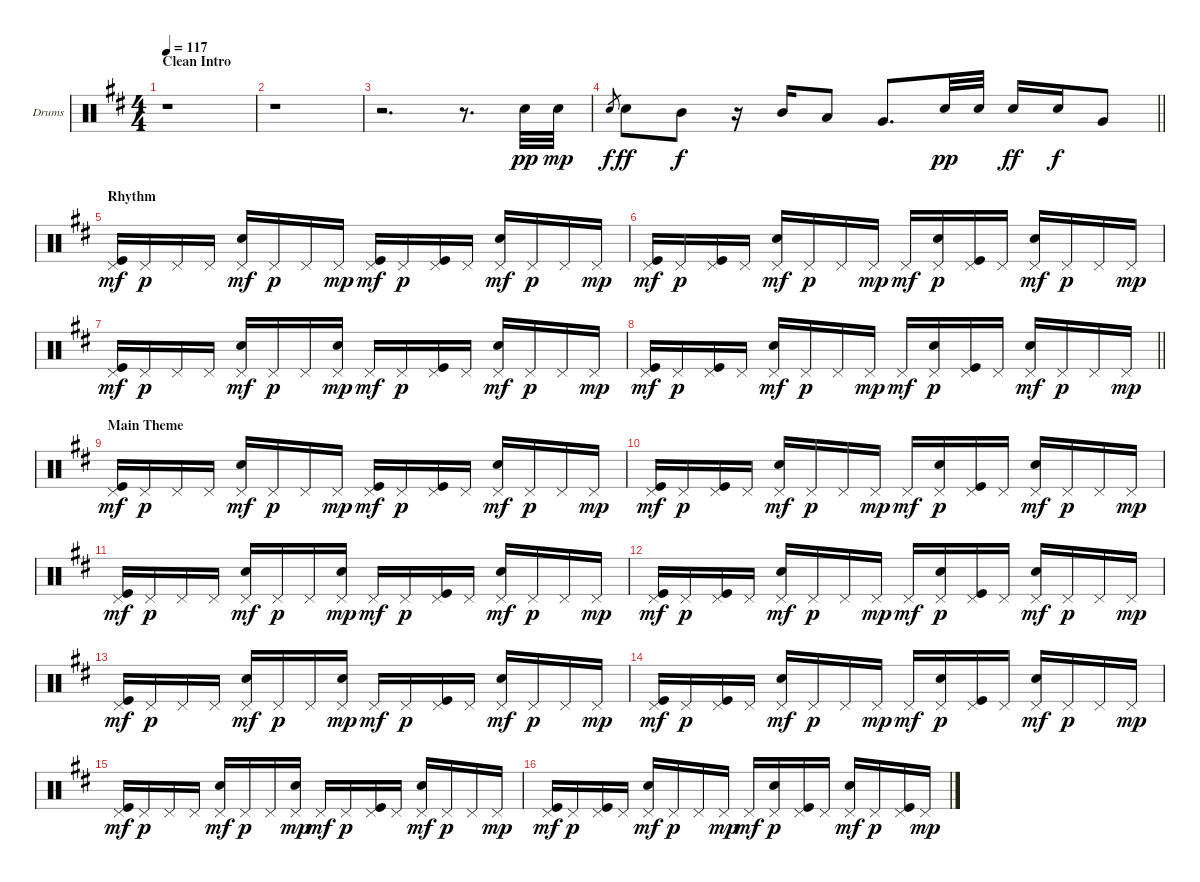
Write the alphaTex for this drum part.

\bracketExtendMode groupsimilarinstruments
\firstSystemTrackNameOrientation horizontal
\otherSystemsTrackNameOrientation horizontal
\track ("Drumkit" "Drums") {instrument percussion}
\staff {score}
\articulation defaults
\ts (4 4)
\beaming (8 2 2 2 2)
\section ("" "Clean Intro")
\tempo 117
\clef neutral
\ks d
r.1{dy pp} |
r.1 |
r.2{d} r.8{d} "Snare (hit) 2".32 "Snare (hit) 2".32{dy mp} |
\barLineRight lightlight "Snare (hit) 2".8{gr dy f} "Snare (hit) 2".8{dy ff} "Mid Tom (hit)".8{dy f}
r.16 "Mid Tom (hit)".16 "Low Tom (hit)".8 "Very Low Tom (hit)".8{d} "Snare (hit) 2".32{dy pp} "Snare (hit) 2".32 "Snare (hit) 2".16{dy ff} "Snare (hit) 2".16{dy f} "Very Low Tom (hit)".8 |
\section ("" "Rhythm")
("Pedal Hi-Hat (hit)" "Kick (hit)").16{dy mf} "Pedal Hi-Hat (hit)".16{dy p} "Pedal Hi-Hat (hit)".16 "Pedal Hi-Hat (hit)".16 ("Pedal Hi-Hat (hit)" "Snare (hit) 2").16{dy mf} "Pedal Hi-Hat (hit)".16{dy p} "Pedal Hi-Hat (hit)".16 "Pedal Hi-Hat (hit)".16{dy mp} ("Pedal Hi-Hat (hit)" "Kick (hit)").16{dy mf} "Pedal Hi-Hat (hit)".16{dy p} ("Pedal Hi-Hat (hit)" "Kick (hit)").16 "Pedal Hi-Hat (hit)".16 ("Pedal Hi-Hat (hit)" "Snare (hit) 2").16{dy mf} "Pedal Hi-Hat (hit)".16{dy p} "Pedal Hi-Hat (hit)".16 "Pedal Hi-Hat (hit)".16{dy mp} |
("Pedal Hi-Hat (hit)" "Kick (hit)").16{dy mf} "Pedal Hi-Hat (hit)".16{dy p} ("Pedal Hi-Hat (hit)" "Kick (hit)").16 "Pedal Hi-Hat (hit)".16 ("Pedal Hi-Hat (hit)" "Snare (hit) 2").16{dy mf} "Pedal Hi-Hat (hit)".16{dy p} "Pedal Hi-Hat (hit)".16 "Pedal Hi-Hat (hit)".16{dy mp} "Pedal Hi-Hat (hit)".16{dy mf} ("Pedal Hi-Hat (hit)" "Snare (hit) 2").16{dy p} ("Pedal Hi-Hat (hit)" "Kick (hit)").16 "Pedal Hi-Hat (hit)".16 ("Pedal Hi-Hat (hit)" "Snare (hit) 2").16{dy mf} "Pedal Hi-Hat (hit)".16{dy p} "Pedal Hi-Hat (hit)".16 "Pedal Hi-Hat (hit)".16{dy mp} |
("Pedal Hi-Hat (hit)" "Kick (hit)").16{dy mf} "Pedal Hi-Hat (hit)".16{dy p} "Pedal Hi-Hat (hit)".16 "Pedal Hi-Hat (hit)".16 ("Pedal Hi-Hat (hit)" "Snare (hit) 2").16{dy mf} "Pedal Hi-Hat (hit)".16{dy p} "Pedal Hi-Hat (hit)".16 ("Pedal Hi-Hat (hit)" "Snare (hit) 2").16{dy mp} "Pedal Hi-Hat (hit)".16{dy mf} "Pedal Hi-Hat (hit)".16{dy p} ("Pedal Hi-Hat (hit)" "Kick (hit)").16 "Pedal Hi-Hat (hit)".16 ("Pedal Hi-Hat (hit)" "Snare (hit) 2").16{dy mf} "Pedal Hi-Hat (hit)".16{dy p} "Pedal Hi-Hat (hit)".16 "Pedal Hi-Hat (hit)".16{dy mp} |
\barLineRight lightlight
("Pedal Hi-Hat (hit)" "Kick (hit)").16{dy mf} "Pedal Hi-Hat (hit)".16{dy p} ("Pedal Hi-Hat (hit)" "Kick (hit)").16 "Pedal Hi-Hat (hit)".16 ("Pedal Hi-Hat (hit)" "Snare (hit) 2").16{dy mf} "Pedal Hi-Hat (hit)".16{dy p} "Pedal Hi-Hat (hit)".16 "Pedal Hi-Hat (hit)".16{dy mp} "Pedal Hi-Hat (hit)".16{dy mf} ("Pedal Hi-Hat (hit)" "Snare (hit) 2").16{dy p} ("Pedal Hi-Hat (hit)" "Kick (hit)").16 "Pedal Hi-Hat (hit)".16 ("Pedal Hi-Hat (hit)" "Snare (hit) 2").16{dy mf} "Pedal Hi-Hat (hit)".16{dy p} "Pedal Hi-Hat (hit)".16 "Pedal Hi-Hat (hit)".16{dy mp} |
\section ("" "Main Theme")
("Pedal Hi-Hat (hit)" "Kick (hit)").16{dy mf} "Pedal Hi-Hat (hit)".16{dy p} "Pedal Hi-Hat (hit)".16 "Pedal Hi-Hat (hit)".16 ("Pedal Hi-Hat (hit)" "Snare (hit) 2").16{dy mf} "Pedal Hi-Hat (hit)".16{dy p} "Pedal Hi-Hat (hit)".16 "Pedal Hi-Hat (hit)".16{dy mp} ("Pedal Hi-Hat (hit)" "Kick (hit)").16{dy mf} "Pedal Hi-Hat (hit)".16{dy p} ("Pedal Hi-Hat (hit)" "Kick (hit)").16 "Pedal Hi-Hat (hit)".16 ("Pedal Hi-Hat (hit)" "Snare (hit) 2").16{dy mf} "Pedal Hi-Hat (hit)".16{dy p} "Pedal Hi-Hat (hit)".16 "Pedal Hi-Hat (hit)".16{dy mp} |
("Pedal Hi-Hat (hit)" "Kick (hit)").16{dy mf} "Pedal Hi-Hat (hit)".16{dy p} ("Pedal Hi-Hat (hit)" "Kick (hit)").16 "Pedal Hi-Hat (hit)".16 ("Pedal Hi-Hat (hit)" "Snare (hit) 2").16{dy mf} "Pedal Hi-Hat (hit)".16{dy p} "Pedal Hi-Hat (hit)".16 "Pedal Hi-Hat (hit)".16{dy mp} "Pedal Hi-Hat (hit)".16{dy mf} ("Pedal Hi-Hat (hit)" "Snare (hit) 2").16{dy p} ("Pedal Hi-Hat (hit)" "Kick (hit)").16 "Pedal Hi-Hat (hit)".16 ("Pedal Hi-Hat (hit)" "Snare (hit) 2").16{dy mf} "Pedal Hi-Hat (hit)".16{dy p} "Pedal Hi-Hat (hit)".16 "Pedal Hi-Hat (hit)".16{dy mp} |
("Pedal Hi-Hat (hit)" "Kick (hit)").16{dy mf} "Pedal Hi-Hat (hit)".16{dy p} "Pedal Hi-Hat (hit)".16 "Pedal Hi-Hat (hit)".16 ("Pedal Hi-Hat (hit)" "Snare (hit) 2").16{dy mf} "Pedal Hi-Hat (hit)".16{dy p} "Pedal Hi-Hat (hit)".16 ("Pedal Hi-Hat (hit)" "Snare (hit) 2").16{dy mp} "Pedal Hi-Hat (hit)".16{dy mf} "Pedal Hi-Hat (hit)".16{dy p} ("Pedal Hi-Hat (hit)" "Kick (hit)").16 "Pedal Hi-Hat (hit)".16 ("Pedal Hi-Hat (hit)" "Snare (hit) 2").16{dy mf} "Pedal Hi-Hat (hit)".16{dy p} "Pedal Hi-Hat (hit)".16 "Pedal Hi-Hat (hit)".16{dy mp} |
("Pedal Hi-Hat (hit)" "Kick (hit)").16{dy mf} "Pedal Hi-Hat (hit)".16{dy p} ("Pedal Hi-Hat (hit)" "Kick (hit)").16 "Pedal Hi-Hat (hit)".16 ("Pedal Hi-Hat (hit)" "Snare (hit) 2").16{dy mf} "Pedal Hi-Hat (hit)".16{dy p} "Pedal Hi-Hat (hit)".16 "Pedal Hi-Hat (hit)".16{dy mp} "Pedal Hi-Hat (hit)".16{dy mf} ("Pedal Hi-Hat (hit)" "Snare (hit) 2").16{dy p} ("Pedal Hi-Hat (hit)" "Kick (hit)").16 "Pedal Hi-Hat (hit)".16 ("Pedal Hi-Hat (hit)" "Snare (hit) 2").16{dy mf} "Pedal Hi-Hat (hit)".16{dy p} "Pedal Hi-Hat (hit)".16 "Pedal Hi-Hat (hit)".16{dy mp} |
("Pedal Hi-Hat (hit)" "Kick (hit)").16{dy mf} "Pedal Hi-Hat (hit)".16{dy p} "Pedal Hi-Hat (hit)".16 "Pedal Hi-Hat (hit)".16 ("Pedal Hi-Hat (hit)" "Snare (hit) 2").16{dy mf} "Pedal Hi-Hat (hit)".16{dy p} "Pedal Hi-Hat (hit)".16 ("Pedal Hi-Hat (hit)" "Snare (hit) 2").16{dy mp} "Pedal Hi-Hat (hit)".16{dy mf} "Pedal Hi-Hat (hit)".16{dy p} ("Pedal Hi-Hat (hit)" "Kick (hit)").16 "Pedal Hi-Hat (hit)".16 ("Pedal Hi-Hat (hit)" "Snare (hit) 2").16{dy mf} "Pedal Hi-Hat (hit)".16{dy p} "Pedal Hi-Hat (hit)".16 "Pedal Hi-Hat (hit)".16{dy mp} |
("Pedal Hi-Hat (hit)" "Kick (hit)").16{dy mf} "Pedal Hi-Hat (hit)".16{dy p} ("Pedal Hi-Hat (hit)" "Kick (hit)").16 "Pedal Hi-Hat (hit)".16 ("Pedal Hi-Hat (hit)" "Snare (hit) 2").16{dy mf} "Pedal Hi-Hat (hit)".16{dy p} "Pedal Hi-Hat (hit)".16 "Pedal Hi-Hat (hit)".16{dy mp} "Pedal Hi-Hat (hit)".16{dy mf} ("Pedal Hi-Hat (hit)" "Snare (hit) 2").16{dy p} ("Pedal Hi-Hat (hit)" "Kick (hit)").16 "Pedal Hi-Hat (hit)".16 ("Pedal Hi-Hat (hit)" "Snare (hit) 2").16{dy mf} "Pedal Hi-Hat (hit)".16{dy p} "Pedal Hi-Hat (hit)".16 "Pedal Hi-Hat (hit)".16{dy mp} |
("Pedal Hi-Hat (hit)" "Kick (hit)").16{dy mf} "Pedal Hi-Hat (hit)".16{dy p} "Pedal Hi-Hat (hit)".16 "Pedal Hi-Hat (hit)".16 ("Pedal Hi-Hat (hit)" "Snare (hit) 2").16{dy mf} "Pedal Hi-Hat (hit)".16{dy p} "Pedal Hi-Hat (hit)".16 ("Pedal Hi-Hat (hit)" "Snare (hit) 2").16{dy mp} "Pedal Hi-Hat (hit)".16{dy mf} "Pedal Hi-Hat (hit)".16{dy p} ("Pedal Hi-Hat (hit)" "Kick (hit)").16 "Pedal Hi-Hat (hit)".16 ("Pedal Hi-Hat (hit)" "Snare (hit) 2").16{dy mf} "Pedal Hi-Hat (hit)".16{dy p} "Pedal Hi-Hat (hit)".16 "Pedal Hi-Hat (hit)".16{dy mp} |
("Pedal Hi-Hat (hit)" "Kick (hit)").16{dy mf} "Pedal Hi-Hat (hit)".16{dy p} ("Pedal Hi-Hat (hit)" "Kick (hit)").16 "Pedal Hi-Hat (hit)".16 ("Pedal Hi-Hat (hit)" "Snare (hit) 2").16{dy mf} "Pedal Hi-Hat (hit)".16{dy p} "Pedal Hi-Hat (hit)".16 "Pedal Hi-Hat (hit)".16{dy mp} "Pedal Hi-Hat (hit)".16{dy mf} ("Pedal Hi-Hat (hit)" "Snare (hit) 2").16{dy p} ("Pedal Hi-Hat (hit)" "Kick (hit)").16 "Pedal Hi-Hat (hit)".16 ("Pedal Hi-Hat (hit)" "Snare (hit) 2").16{dy mf} "Pedal Hi-Hat (hit)".16{dy p} ("Pedal Hi-Hat (hit)" "Kick (hit)").16 "Pedal Hi-Hat (hit)".16{dy mp}
